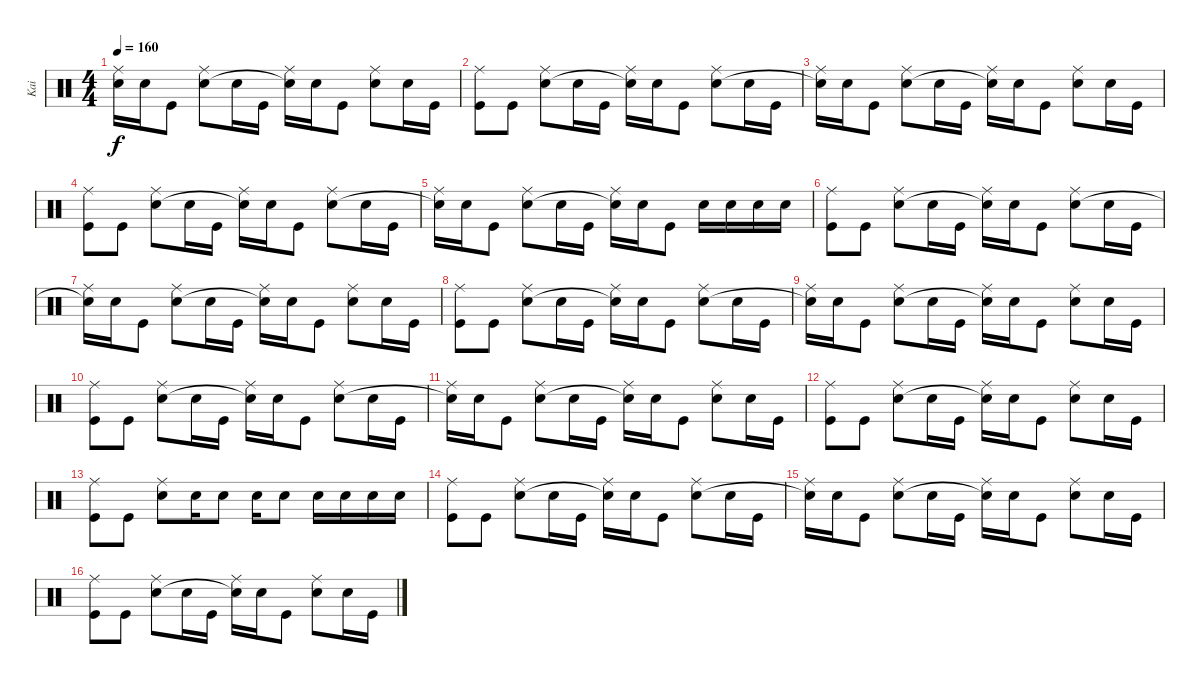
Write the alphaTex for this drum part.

\track ("Kai" "Kai") {instrument percussion}
\staff {score}
\articulation defaults
\ts (4 4)
\tempo 160
\clef neutral
\ks c
("Ride (middle)" "Snare (hit)"{t}).16{dy f} "Snare (hit) 2".16 "Kick (hit)".8 ("Ride (middle)" "Snare (hit) 2").8 "Snare (hit) 2".16 "Kick (hit)".16 ("Ride (middle)" "Snare (hit)"{t}).16 "Snare (hit) 2".16 "Kick (hit)".8 ("Ride (middle)" "Snare (hit) 2").8 "Snare (hit) 2".16 "Kick (hit)".16 |
("Ride (middle)" "Kick (hit)").8 "Kick (hit)".8 ("Ride (middle)" "Snare (hit) 2").8 "Snare (hit) 2".16 "Kick (hit)".16 ("Ride (middle)" "Snare (hit)"{t}).16 "Snare (hit) 2".16 "Kick (hit)".8 ("Ride (middle)" "Snare (hit) 2").8 "Snare (hit) 2".16 "Kick (hit)".16 |
("Ride (middle)" "Snare (hit)"{t}).16 "Snare (hit) 2".16 "Kick (hit)".8 ("Ride (middle)" "Snare (hit) 2").8 "Snare (hit) 2".16 "Kick (hit)".16 ("Ride (middle)" "Snare (hit)"{t}).16 "Snare (hit) 2".16 "Kick (hit)".8 ("Ride (middle)" "Snare (hit) 2").8 "Snare (hit) 2".16 "Kick (hit)".16 |
("Ride (middle)" "Kick (hit)").8 "Kick (hit)".8 ("Ride (middle)" "Snare (hit) 2").8 "Snare (hit) 2".16 "Kick (hit)".16 ("Ride (middle)" "Snare (hit)"{t}).16 "Snare (hit) 2".16 "Kick (hit)".8 ("Ride (middle)" "Snare (hit) 2").8 "Snare (hit) 2".16 "Kick (hit)".16 |
("Ride (middle)" "Snare (hit)"{t}).16 "Snare (hit) 2".16 "Kick (hit)".8 ("Ride (middle)" "Snare (hit) 2").8 "Snare (hit) 2".16 "Kick (hit)".16 ("Ride (middle)" "Snare (hit)"{t}).16 "Snare (hit) 2".16 "Kick (hit)".8 "Snare (hit) 2".16 "Snare (hit) 2".16 "Snare (hit) 2".16 "Snare (hit) 2".16 |
("Ride (middle)" "Kick (hit)").8 "Kick (hit)".8 ("Ride (middle)" "Snare (hit) 2").8 "Snare (hit) 2".16 "Kick (hit)".16 ("Ride (middle)" "Snare (hit)"{t}).16 "Snare (hit) 2".16 "Kick (hit)".8 ("Ride (middle)" "Snare (hit) 2").8 "Snare (hit) 2".16 "Kick (hit)".16 |
("Ride (middle)" "Snare (hit)"{t}).16 "Snare (hit) 2".16 "Kick (hit)".8 ("Ride (middle)" "Snare (hit) 2").8 "Snare (hit) 2".16 "Kick (hit)".16 ("Ride (middle)" "Snare (hit)"{t}).16 "Snare (hit) 2".16 "Kick (hit)".8 ("Ride (middle)" "Snare (hit) 2").8 "Snare (hit) 2".16 "Kick (hit)".16 |
("Ride (middle)" "Kick (hit)").8 "Kick (hit)".8 ("Ride (middle)" "Snare (hit) 2").8 "Snare (hit) 2".16 "Kick (hit)".16 ("Ride (middle)" "Snare (hit)"{t}).16 "Snare (hit) 2".16 "Kick (hit)".8 ("Ride (middle)" "Snare (hit) 2").8 "Snare (hit) 2".16 "Kick (hit)".16 |
("Ride (middle)" "Snare (hit)"{t}).16 "Snare (hit) 2".16 "Kick (hit)".8 ("Ride (middle)" "Snare (hit) 2").8 "Snare (hit) 2".16 "Kick (hit)".16 ("Ride (middle)" "Snare (hit)"{t}).16 "Snare (hit) 2".16 "Kick (hit)".8 ("Ride (middle)" "Snare (hit) 2").8 "Snare (hit) 2".16 "Kick (hit)".16 |
("Ride (middle)" "Kick (hit)").8 "Kick (hit)".8 ("Ride (middle)" "Snare (hit) 2").8 "Snare (hit) 2".16 "Kick (hit)".16 ("Ride (middle)" "Snare (hit)"{t}).16 "Snare (hit) 2".16 "Kick (hit)".8 ("Ride (middle)" "Snare (hit) 2").8 "Snare (hit) 2".16 "Kick (hit)".16 |
("Ride (middle)" "Snare (hit)"{t}).16 "Snare (hit) 2".16 "Kick (hit)".8 ("Ride (middle)" "Snare (hit) 2").8 "Snare (hit) 2".16 "Kick (hit)".16 ("Ride (middle)" "Snare (hit)"{t}).16 "Snare (hit) 2".16 "Kick (hit)".8 ("Ride (middle)" "Snare (hit) 2").8 "Snare (hit) 2".16 "Kick (hit)".16 |
("Ride (middle)" "Kick (hit)").8 "Kick (hit)".8 ("Ride (middle)" "Snare (hit) 2").8 "Snare (hit) 2".16 "Kick (hit)".16 ("Ride (middle)" "Snare (hit)"{t}).16 "Snare (hit) 2".16 "Kick (hit)".8 ("Ride (middle)" "Snare (hit) 2").8 "Snare (hit) 2".16 "Kick (hit)".16 |
("Ride (middle)" "Kick (hit)").8 "Kick (hit)".8 ("Ride (middle)" "Snare (hit) 2").8 "Snare (hit) 2".16 "Snare (hit) 2".8 "Snare (hit) 2".16 "Snare (hit) 2".8 "Snare (hit) 2".16 "Snare (hit) 2".16 "Snare (hit) 2".16 "Snare (hit) 2".16 |
("Ride (middle)" "Kick (hit)").8 "Kick (hit)".8 ("Ride (middle)" "Snare (hit) 2").8 "Snare (hit) 2".16 "Kick (hit)".16 ("Ride (middle)" "Snare (hit)"{t}).16 "Snare (hit) 2".16 "Kick (hit)".8 ("Ride (middle)" "Snare (hit) 2").8 "Snare (hit) 2".16 "Kick (hit)".16 |
("Ride (middle)" "Snare (hit)"{t}).16 "Snare (hit) 2".16 "Kick (hit)".8 ("Ride (middle)" "Snare (hit) 2").8 "Snare (hit) 2".16 "Kick (hit)".16 ("Ride (middle)" "Snare (hit)"{t}).16 "Snare (hit) 2".16 "Kick (hit)".8 ("Ride (middle)" "Snare (hit) 2").8 "Snare (hit) 2".16 "Kick (hit)".16 |
("Ride (middle)" "Kick (hit)").8 "Kick (hit)".8 ("Ride (middle)" "Snare (hit) 2").8 "Snare (hit) 2".16 "Kick (hit)".16 ("Ride (middle)" "Snare (hit)"{t}).16 "Snare (hit) 2".16 "Kick (hit)".8 ("Ride (middle)" "Snare (hit) 2").8 "Snare (hit) 2".16 "Kick (hit)".16
